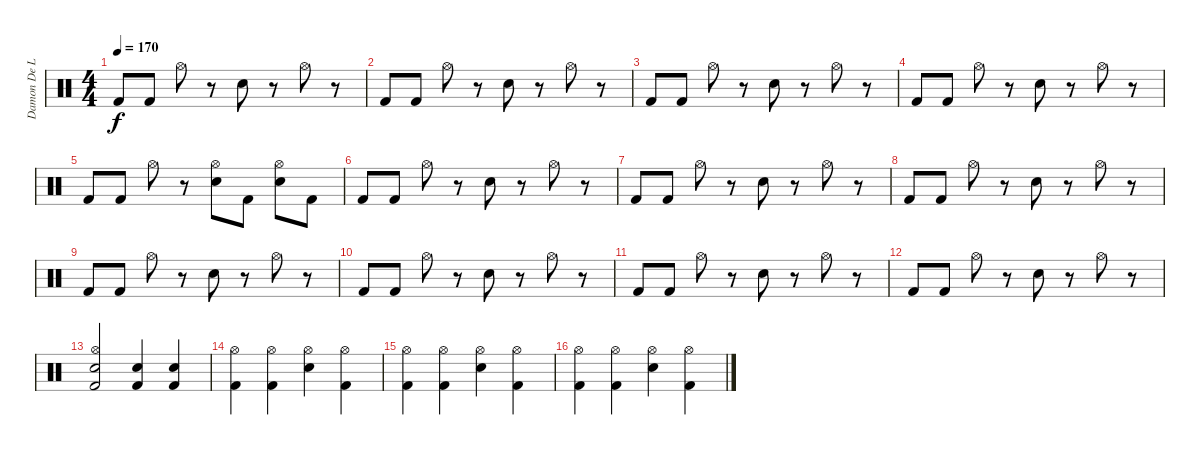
\track ("Damon De La Paz" "Damon De L") {instrument percussion}
\staff {score}
\articulation defaults
\ts (4 4)
\tempo 170
\clef neutral
\ks c "Kick (hit) 2".8{dy f} "Kick (hit) 2".8 "Hi-Hat (open)".8
r.8 "Electric Snare (hit)".8 r.8 "Hi-Hat (open)".8 r.8 |
"Kick (hit) 2".8 "Kick (hit) 2".8 "Hi-Hat (open)".8 r.8 "Electric Snare (hit)".8 r.8 "Hi-Hat (open)".8 r.8 |
"Kick (hit) 2".8 "Kick (hit) 2".8 "Hi-Hat (open)".8 r.8 "Electric Snare (hit)".8 r.8 "Hi-Hat (open)".8 r.8 |
"Kick (hit) 2".8 "Kick (hit) 2".8 "Hi-Hat (open)".8 r.8 "Electric Snare (hit)".8 r.8 "Hi-Hat (open)".8 r.8 |
"Kick (hit) 2".8 "Kick (hit) 2".8 "Hi-Hat (open)".8 r.8 ("Hi-Hat (open)" "Electric Snare (hit)").8 "Kick (hit) 2".8 ("Hi-Hat (open)" "Electric Snare (hit)").8 "Kick (hit) 2".8 |
"Kick (hit) 2".8 "Kick (hit) 2".8 "Hi-Hat (open)".8 r.8 "Electric Snare (hit)".8 r.8 "Hi-Hat (open)".8 r.8 |
"Kick (hit) 2".8 "Kick (hit) 2".8 "Hi-Hat (open)".8 r.8 "Electric Snare (hit)".8 r.8 "Hi-Hat (open)".8 r.8 |
"Kick (hit) 2".8 "Kick (hit) 2".8 "Hi-Hat (open)".8 r.8 "Electric Snare (hit)".8 r.8 "Hi-Hat (open)".8 r.8 |
"Kick (hit) 2".8 "Kick (hit) 2".8 "Hi-Hat (open)".8 r.8 "Electric Snare (hit)".8 r.8 "Hi-Hat (open)".8 r.8 |
"Kick (hit) 2".8 "Kick (hit) 2".8 "Hi-Hat (open)".8 r.8 "Electric Snare (hit)".8 r.8 "Hi-Hat (open)".8 r.8 |
"Kick (hit) 2".8 "Kick (hit) 2".8 "Hi-Hat (open)".8 r.8 "Electric Snare (hit)".8 r.8 "Hi-Hat (open)".8 r.8 |
"Kick (hit) 2".8 "Kick (hit) 2".8 "Hi-Hat (open)".8 r.8 "Electric Snare (hit)".8 r.8 "Hi-Hat (open)".8 r.8 |
("Hi-Hat (open)" "Electric Snare (hit)" "Kick (hit) 2").2 ("Snare (hit) 2" "Kick (hit) 2").4 ("Snare (hit) 2" "Kick (hit) 2").4 |
("Hi-Hat (open)" "Kick (hit) 2").4 ("Hi-Hat (open)" "Kick (hit) 2").4 ("Hi-Hat (open)" "Electric Snare (hit)").4 ("Hi-Hat (open)" "Kick (hit) 2").4 |
("Hi-Hat (open)" "Kick (hit) 2").4 ("Hi-Hat (open)" "Kick (hit) 2").4 ("Hi-Hat (open)" "Electric Snare (hit)").4 ("Hi-Hat (open)" "Kick (hit) 2").4 |
("Hi-Hat (open)" "Kick (hit) 2").4 ("Hi-Hat (open)" "Kick (hit) 2").4 ("Hi-Hat (open)" "Electric Snare (hit)").4 ("Hi-Hat (open)" "Kick (hit) 2").4
